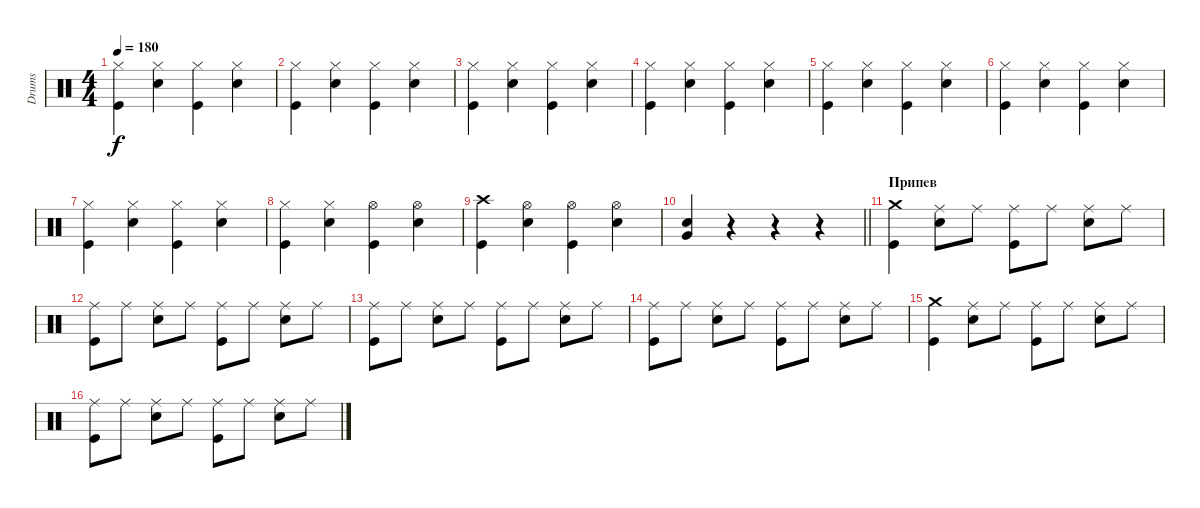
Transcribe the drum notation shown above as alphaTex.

\track ("Drums" "Drums") {instrument percussion}
\staff {score}
\articulation defaults
\ts (4 4)
\tempo 180
\clef neutral
\ks c
("Kick (hit)" "Hi-Hat (closed)").4{dy f} ("Snare (hit) 2" "Hi-Hat (closed)").4 ("Kick (hit)" "Hi-Hat (closed)").4 ("Snare (hit) 2" "Hi-Hat (closed)").4 |
("Kick (hit)" "Hi-Hat (closed)").4 ("Snare (hit) 2" "Hi-Hat (closed)").4 ("Kick (hit)" "Hi-Hat (closed)").4 ("Snare (hit) 2" "Hi-Hat (closed)").4 |
("Kick (hit)" "Hi-Hat (closed)").4 ("Snare (hit) 2" "Hi-Hat (closed)").4 ("Kick (hit)" "Hi-Hat (closed)").4 ("Snare (hit) 2" "Hi-Hat (closed)").4 |
("Kick (hit)" "Hi-Hat (closed)").4 ("Snare (hit) 2" "Hi-Hat (closed)").4 ("Kick (hit)" "Hi-Hat (closed)").4 ("Snare (hit) 2" "Hi-Hat (closed)").4 |
("Kick (hit)" "Hi-Hat (closed)").4 ("Snare (hit) 2" "Hi-Hat (closed)").4 ("Kick (hit)" "Hi-Hat (closed)").4 ("Snare (hit) 2" "Hi-Hat (closed)").4 |
("Kick (hit)" "Hi-Hat (closed)").4 ("Snare (hit) 2" "Hi-Hat (closed)").4 ("Kick (hit)" "Hi-Hat (closed)").4 ("Snare (hit) 2" "Hi-Hat (closed)").4 |
("Kick (hit)" "Hi-Hat (closed)").4 ("Snare (hit) 2" "Hi-Hat (closed)").4 ("Kick (hit)" "Hi-Hat (closed)").4 ("Snare (hit) 2" "Hi-Hat (closed)").4 |
("Kick (hit)" "Hi-Hat (closed)").4 ("Snare (hit) 2" "Hi-Hat (closed)").4 ("Kick (hit)" "Hi-Hat (open)").4 ("Snare (hit) 2" "Hi-Hat (open)").4 |
("Kick (hit)" "Crash high (hit)").4 ("Snare (hit) 2" "Hi-Hat (open)").4 ("Kick (hit)" "Hi-Hat (open)").4 ("Snare (hit) 2" "Hi-Hat (open)").4 |
\barLineRight lightlight
("Snare (hit) 2" "Very Low Tom (hit)").4 r.4 r.4 r.4 |
\section ("" "Припев")
("Kick (hit)" "Crash medium (hit)").4 ("Snare (hit) 2" "Ride (middle)").8 "Ride (middle)".8 ("Kick (hit)" "Ride (middle)").8 "Ride (middle)".8 ("Snare (hit) 2" "Ride (middle)").8 "Ride (middle)".8 |
("Kick (hit)" "Ride (middle)").8 "Ride (middle)".8 ("Snare (hit) 2" "Ride (middle)").8 "Ride (middle)".8 ("Kick (hit)" "Ride (middle)").8 "Ride (middle)".8 ("Snare (hit) 2" "Ride (middle)").8 "Ride (middle)".8 |
("Kick (hit)" "Ride (middle)").8 "Ride (middle)".8 ("Snare (hit) 2" "Ride (middle)").8 "Ride (middle)".8 ("Kick (hit)" "Ride (middle)").8 "Ride (middle)".8 ("Snare (hit) 2" "Ride (middle)").8 "Ride (middle)".8 |
("Kick (hit)" "Ride (middle)").8 "Ride (middle)".8 ("Snare (hit) 2" "Ride (middle)").8 "Ride (middle)".8 ("Kick (hit)" "Ride (middle)").8 "Ride (middle)".8 ("Snare (hit) 2" "Ride (middle)").8 "Ride (middle)".8 |
("Kick (hit)" "Crash medium (hit)").4 ("Snare (hit) 2" "Ride (middle)").8 "Ride (middle)".8 ("Kick (hit)" "Ride (middle)").8 "Ride (middle)".8 ("Snare (hit) 2" "Ride (middle)").8 "Ride (middle)".8 |
("Kick (hit)" "Ride (middle)").8 "Ride (middle)".8 ("Snare (hit) 2" "Ride (middle)").8 "Ride (middle)".8 ("Kick (hit)" "Ride (middle)").8 "Ride (middle)".8 ("Snare (hit) 2" "Ride (middle)").8 "Ride (middle)".8
